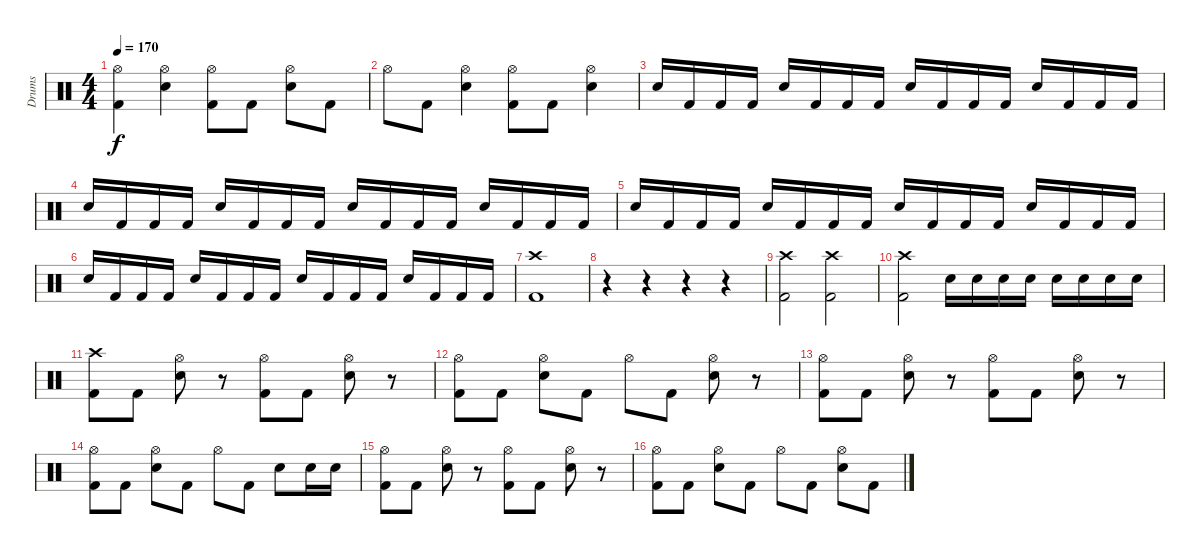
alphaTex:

\track ("Drums" "Drums") {instrument percussion}
\staff {score}
\articulation defaults
\ts (4 4)
\tempo 170
\clef neutral
\ks c
("Hi-Hat (open)" "Kick (hit) 2").4{dy f} ("Hi-Hat (open)" "Snare (hit) 2").4 ("Hi-Hat (open)" "Kick (hit) 2").8 "Kick (hit) 2".8 ("Hi-Hat (open)" "Snare (hit) 2").8 "Kick (hit) 2".8 |
"Hi-Hat (open)".8 "Kick (hit) 2".8 ("Hi-Hat (open)" "Snare (hit) 2").4 ("Hi-Hat (open)" "Kick (hit) 2").8 "Kick (hit) 2".8 ("Hi-Hat (open)" "Snare (hit) 2").4 |
"Snare (hit) 2".16 "Kick (hit) 2".16 "Kick (hit) 2".16 "Kick (hit) 2".16 "Snare (hit) 2".16 "Kick (hit) 2".16 "Kick (hit) 2".16 "Kick (hit) 2".16 "Snare (hit) 2".16 "Kick (hit) 2".16 "Kick (hit) 2".16 "Kick (hit) 2".16 "Snare (hit) 2".16 "Kick (hit) 2".16 "Kick (hit) 2".16 "Kick (hit) 2".16 |
"Snare (hit) 2".16 "Kick (hit) 2".16 "Kick (hit) 2".16 "Kick (hit) 2".16 "Snare (hit) 2".16 "Kick (hit) 2".16 "Kick (hit) 2".16 "Kick (hit) 2".16 "Snare (hit) 2".16 "Kick (hit) 2".16 "Kick (hit) 2".16 "Kick (hit) 2".16 "Snare (hit) 2".16 "Kick (hit) 2".16 "Kick (hit) 2".16 "Kick (hit) 2".16 |
"Snare (hit) 2".16 "Kick (hit) 2".16 "Kick (hit) 2".16 "Kick (hit) 2".16 "Snare (hit) 2".16 "Kick (hit) 2".16 "Kick (hit) 2".16 "Kick (hit) 2".16 "Snare (hit) 2".16 "Kick (hit) 2".16 "Kick (hit) 2".16 "Kick (hit) 2".16 "Snare (hit) 2".16 "Kick (hit) 2".16 "Kick (hit) 2".16 "Kick (hit) 2".16 |
"Snare (hit) 2".16 "Kick (hit) 2".16 "Kick (hit) 2".16 "Kick (hit) 2".16 "Snare (hit) 2".16 "Kick (hit) 2".16 "Kick (hit) 2".16 "Kick (hit) 2".16 "Snare (hit) 2".16 "Kick (hit) 2".16 "Kick (hit) 2".16 "Kick (hit) 2".16 "Snare (hit) 2".16 "Kick (hit) 2".16 "Kick (hit) 2".16 "Kick (hit) 2".16 |
("Crash high (hit)" "Kick (hit) 2").1 |
r.4 r.4 r.4 r.4 |
("Crash high (hit)" "Kick (hit) 2").2 ("Crash high (hit)" "Kick (hit) 2").2 |
("Crash high (hit)" "Kick (hit) 2").2 "Snare (hit) 2".16 "Snare (hit) 2".16 "Snare (hit) 2".16 "Snare (hit) 2".16 "Snare (hit) 2".16 "Snare (hit) 2".16 "Snare (hit) 2".16 "Snare (hit) 2".16 |
("Crash high (hit)" "Kick (hit) 2").8 "Kick (hit) 2".8 ("Hi-Hat (open)" "Snare (hit) 2").8 r.8 ("Hi-Hat (open)" "Kick (hit) 2").8 "Kick (hit) 2".8 ("Hi-Hat (open)" "Snare (hit) 2").8 r.8 |
("Hi-Hat (open)" "Kick (hit) 2").8 "Kick (hit) 2".8 ("Hi-Hat (open)" "Snare (hit) 2").8 "Kick (hit) 2".8 "Hi-Hat (open)".8 "Kick (hit) 2".8 ("Hi-Hat (open)" "Snare (hit) 2").8 r.8 |
("Hi-Hat (open)" "Kick (hit) 2").8 "Kick (hit) 2".8 ("Hi-Hat (open)" "Snare (hit) 2").8 r.8 ("Hi-Hat (open)" "Kick (hit) 2").8 "Kick (hit) 2".8 ("Hi-Hat (open)" "Snare (hit) 2").8 r.8 |
("Hi-Hat (open)" "Kick (hit) 2").8 "Kick (hit) 2".8 ("Hi-Hat (open)" "Snare (hit) 2").8 "Kick (hit) 2".8 "Hi-Hat (open)".8 "Kick (hit) 2".8 "Snare (hit) 2".8 "Snare (hit) 2".16 "Snare (hit) 2".16 |
("Hi-Hat (open)" "Kick (hit) 2").8 "Kick (hit) 2".8 ("Hi-Hat (open)" "Snare (hit) 2").8 r.8 ("Hi-Hat (open)" "Kick (hit) 2").8 "Kick (hit) 2".8 ("Hi-Hat (open)" "Snare (hit) 2").8 r.8 |
("Hi-Hat (open)" "Kick (hit) 2").8 "Kick (hit) 2".8 ("Hi-Hat (open)" "Snare (hit) 2").8 "Kick (hit) 2".8 "Hi-Hat (open)".8 "Kick (hit) 2".8 ("Hi-Hat (open)" "Snare (hit) 2").8 "Kick (hit) 2".8
